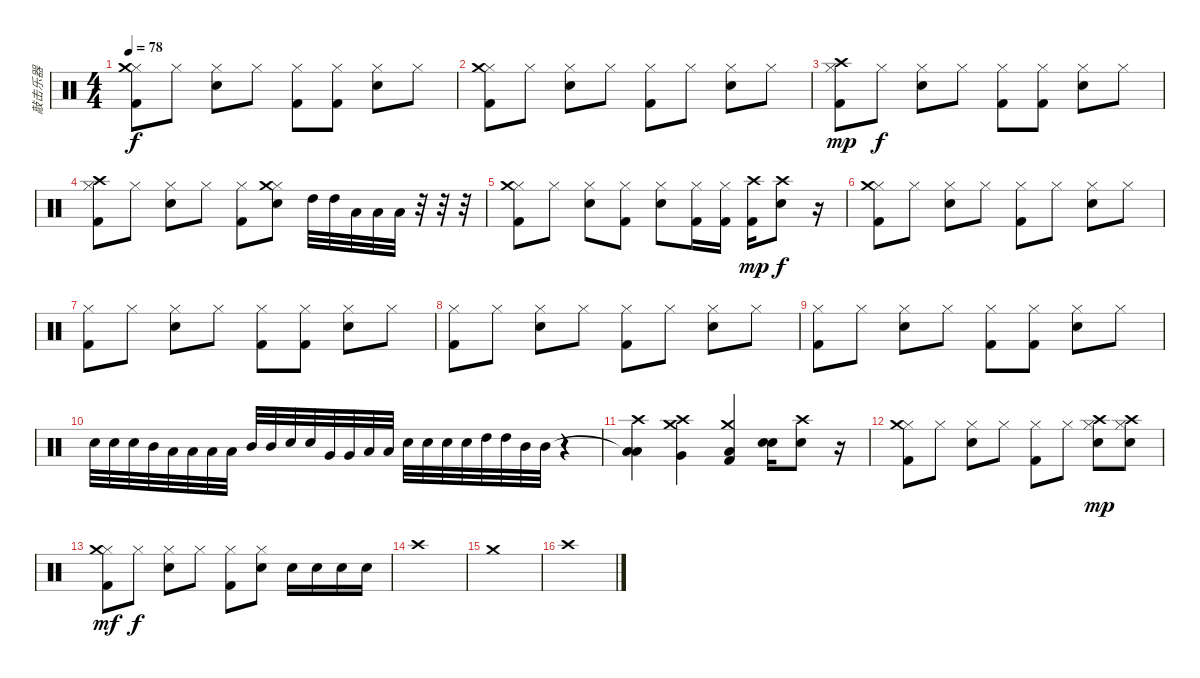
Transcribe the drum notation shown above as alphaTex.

\track ("敲击乐器" "敲击乐器") {instrument percussion}
\staff {score}
\articulation defaults
\ts (4 4)
\tempo 78
\clef neutral
\ks c
("Hi-Hat (closed)" "Kick (hit) 2" "Crash medium (hit)").8{dy f} "Hi-Hat (closed)".8 ("Hi-Hat (closed)" "Snare (hit) 2").8 "Hi-Hat (closed)".8 ("Hi-Hat (closed)" "Kick (hit) 2").8 ("Hi-Hat (closed)" "Kick (hit) 2").8 ("Hi-Hat (closed)" "Snare (hit) 2").8 "Hi-Hat (closed)".8 |
("Hi-Hat (closed)" "Kick (hit) 2" "Crash medium (hit)").8 "Hi-Hat (closed)".8 ("Hi-Hat (closed)" "Snare (hit) 2").8 "Hi-Hat (closed)".8 ("Hi-Hat (closed)" "Kick (hit) 2").8 "Hi-Hat (closed)".8 ("Hi-Hat (closed)" "Snare (hit) 2").8 "Hi-Hat (closed)".8 |
("Hi-Hat (closed)" "Kick (hit) 2" "Crash high (hit)").8{dy mp} "Hi-Hat (closed)".8{dy f} ("Hi-Hat (closed)" "Snare (hit) 2").8 "Hi-Hat (closed)".8 ("Hi-Hat (closed)" "Kick (hit) 2").8 ("Hi-Hat (closed)" "Kick (hit) 2").8 ("Hi-Hat (closed)" "Snare (hit) 2").8 "Hi-Hat (closed)".8 |
("Hi-Hat (closed)" "Kick (hit) 2" "Crash high (hit)").8 "Hi-Hat (closed)".8 ("Hi-Hat (closed)" "Snare (hit) 2").8 "Hi-Hat (closed)".8 ("Hi-Hat (closed)" "Kick (hit) 2").8 ("Hi-Hat (closed)" "Snare (hit) 2" "Crash medium (hit)").8 "High Tom (hit)".32 "High Tom (hit)".32 "Low Tom (hit)".32 "Low Tom (hit)".32 "Low Tom (hit)".32 r.32 r.32 r.32 |
("Hi-Hat (closed)" "Kick (hit) 2" "Crash medium (hit)").8 "Hi-Hat (closed)".8 ("Hi-Hat (closed)" "Snare (hit) 2").8 ("Hi-Hat (closed)" "Kick (hit) 2").8 ("Hi-Hat (closed)" "Snare (hit) 2").8 ("Hi-Hat (closed)" "Kick (hit) 2").16 ("Hi-Hat (closed)" "Kick (hit) 2").16 ("Crash high (hit)" "Kick (hit) 2").16{dy mp} ("Crash high (hit)" "Snare (hit) 2").8{dy f} r.16 |
("Hi-Hat (closed)" "Kick (hit) 2" "Crash medium (hit)").8 "Hi-Hat (closed)".8 ("Hi-Hat (closed)" "Snare (hit) 2").8 "Hi-Hat (closed)".8 ("Hi-Hat (closed)" "Kick (hit) 2").8 "Hi-Hat (closed)".8 ("Hi-Hat (closed)" "Snare (hit) 2").8 "Hi-Hat (closed)".8 |
("Hi-Hat (closed)" "Kick (hit) 2").8 "Hi-Hat (closed)".8 ("Hi-Hat (closed)" "Snare (hit) 2").8 "Hi-Hat (closed)".8 ("Hi-Hat (closed)" "Kick (hit) 2").8 ("Hi-Hat (closed)" "Kick (hit) 2").8 ("Hi-Hat (closed)" "Snare (hit) 2").8 "Hi-Hat (closed)".8 |
("Hi-Hat (closed)" "Kick (hit) 2").8 "Hi-Hat (closed)".8 ("Hi-Hat (closed)" "Snare (hit) 2").8 "Hi-Hat (closed)".8 ("Hi-Hat (closed)" "Kick (hit) 2").8 "Hi-Hat (closed)".8 ("Hi-Hat (closed)" "Snare (hit) 2").8 "Hi-Hat (closed)".8 |
("Hi-Hat (closed)" "Kick (hit) 2").8 "Hi-Hat (closed)".8 ("Hi-Hat (closed)" "Snare (hit) 2").8 "Hi-Hat (closed)".8 ("Hi-Hat (closed)" "Kick (hit) 2").8 ("Hi-Hat (closed)" "Kick (hit) 2").8 ("Hi-Hat (closed)" "Snare (hit) 2").8 "Hi-Hat (closed)".8 |
"Snare (hit) 2".32 "Snare (hit) 2".32 "Electric Snare (hit)".32 "Mid Tom (hit)".32 "Low Tom (hit)".32 "Low Tom (hit)".32 "Low Tom (hit)".32 "Low Tom (hit)".32 "Mid Tom (hit)".32 "Mid Tom (hit)".32 "Electric Snare (hit)".32 "Electric Snare (hit)".32 "Very Low Tom (hit)".32 "Very Low Tom (hit)".32 "Low Tom (hit)".32 "Low Tom (hit)".32 "Snare (hit) 2".32 "Snare (hit) 2".32 "Snare (hit) 2".32 "Snare (hit) 2".32 "High Tom (hit)".32 "High Tom (hit)".32 "Mid Tom (hit)".32 "Mid Tom (hit)".32 r.4 |
("Low Tom (hit)"{t} "Crash high (hit)" "Low Tom (hit)").4 ("Crash medium (hit)" "Crash high (hit)" "Very Low Tom (hit)").4 ("Crash medium (hit)" "Kick (hit) 2" "Low Floor Tom (hit)").4 ("Snare (hit) 2" "Electric Snare (hit)").16 ("Crash high (hit)" "Electric Snare (hit)").8 r.16 |
("Hi-Hat (closed)" "Kick (hit) 2" "Crash medium (hit)").8 "Hi-Hat (closed)".8 ("Hi-Hat (closed)" "Snare (hit) 2").8 "Hi-Hat (closed)".8 ("Hi-Hat (closed)" "Kick (hit) 2").8 "Hi-Hat (closed)".8 ("Hi-Hat (closed)" "Snare (hit) 2" "Crash high (hit)").8{dy mp} ("Hi-Hat (closed)" "Snare (hit) 2" "Crash high (hit)").8 |
("Hi-Hat (closed)" "Kick (hit) 2" "Crash medium (hit)").8{dy mf} "Hi-Hat (closed)".8{dy f} ("Hi-Hat (closed)" "Snare (hit) 2").8 "Hi-Hat (closed)".8 ("Hi-Hat (closed)" "Kick (hit) 2").8 ("Hi-Hat (closed)" "Snare (hit) 2").8 "Snare (hit) 2".16 "Snare (hit) 2".16 "Snare (hit) 2".16 "Snare (hit) 2".16 |
"Crash high (hit)".1 |
"Crash medium (hit)".1 |
"Crash high (hit)".1
